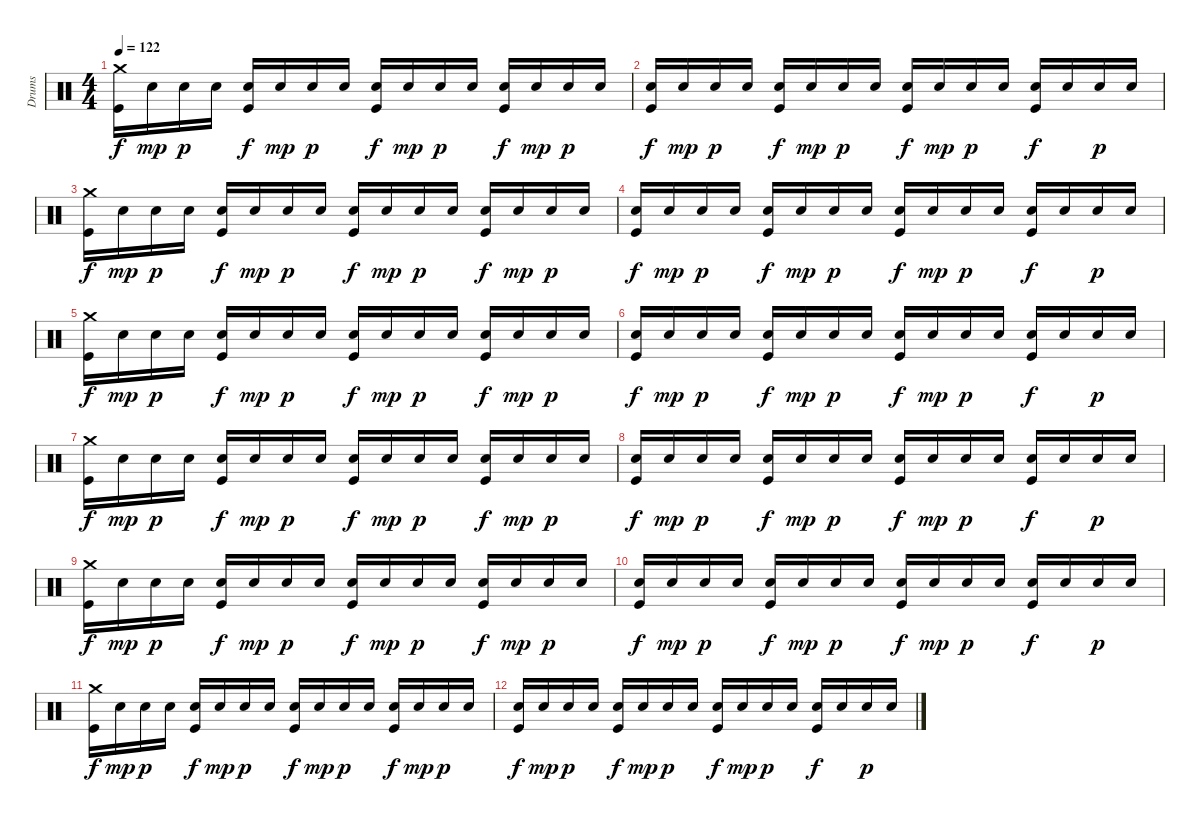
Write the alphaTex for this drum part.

\track ("Drums" "Drums") {instrument percussion}
\staff {score}
\articulation defaults
\ts (4 4)
\tempo 122
\clef neutral
\ks c
("Crash medium (hit)" "Kick (hit)").16{dy f} "Snare (hit) 2".16{dy mp} "Snare (hit) 2".16{dy p} "Snare (hit) 2".16 ("Snare (hit) 2" "Kick (hit)").16{dy f} "Snare (hit) 2".16{dy mp} "Snare (hit) 2".16{dy p} "Snare (hit) 2".16 ("Snare (hit) 2" "Kick (hit)").16{dy f} "Snare (hit) 2".16{dy mp} "Snare (hit) 2".16{dy p} "Snare (hit) 2".16 ("Snare (hit) 2" "Kick (hit)").16{dy f} "Snare (hit) 2".16{dy mp} "Snare (hit) 2".16{dy p} "Snare (hit) 2".16 |
("Snare (hit) 2" "Kick (hit)").16{dy f} "Snare (hit) 2".16{dy mp} "Snare (hit) 2".16{dy p} "Snare (hit) 2".16 ("Snare (hit) 2" "Kick (hit)").16{dy f} "Snare (hit) 2".16{dy mp} "Snare (hit) 2".16{dy p} "Snare (hit) 2".16 ("Snare (hit) 2" "Kick (hit)").16{dy f} "Snare (hit) 2".16{dy mp} "Snare (hit) 2".16{dy p} "Snare (hit) 2".16 ("Snare (hit) 2" "Kick (hit)").16{dy f} "Snare (hit) 2".16 "Snare (hit) 2".16{dy p} "Snare (hit) 2".16 |
("Crash medium (hit)" "Kick (hit)").16{dy f} "Snare (hit) 2".16{dy mp} "Snare (hit) 2".16{dy p} "Snare (hit) 2".16 ("Snare (hit) 2" "Kick (hit)").16{dy f} "Snare (hit) 2".16{dy mp} "Snare (hit) 2".16{dy p} "Snare (hit) 2".16 ("Snare (hit) 2" "Kick (hit)").16{dy f} "Snare (hit) 2".16{dy mp} "Snare (hit) 2".16{dy p} "Snare (hit) 2".16 ("Snare (hit) 2" "Kick (hit)").16{dy f} "Snare (hit) 2".16{dy mp} "Snare (hit) 2".16{dy p} "Snare (hit) 2".16 |
("Snare (hit) 2" "Kick (hit)").16{dy f} "Snare (hit) 2".16{dy mp} "Snare (hit) 2".16{dy p} "Snare (hit) 2".16 ("Snare (hit) 2" "Kick (hit)").16{dy f} "Snare (hit) 2".16{dy mp} "Snare (hit) 2".16{dy p} "Snare (hit) 2".16 ("Snare (hit) 2" "Kick (hit)").16{dy f} "Snare (hit) 2".16{dy mp} "Snare (hit) 2".16{dy p} "Snare (hit) 2".16 ("Snare (hit) 2" "Kick (hit)").16{dy f} "Snare (hit) 2".16 "Snare (hit) 2".16{dy p} "Snare (hit) 2".16 |
("Crash medium (hit)" "Kick (hit)").16{dy f} "Snare (hit) 2".16{dy mp} "Snare (hit) 2".16{dy p} "Snare (hit) 2".16 ("Snare (hit) 2" "Kick (hit)").16{dy f} "Snare (hit) 2".16{dy mp} "Snare (hit) 2".16{dy p} "Snare (hit) 2".16 ("Snare (hit) 2" "Kick (hit)").16{dy f} "Snare (hit) 2".16{dy mp} "Snare (hit) 2".16{dy p} "Snare (hit) 2".16 ("Snare (hit) 2" "Kick (hit)").16{dy f} "Snare (hit) 2".16{dy mp} "Snare (hit) 2".16{dy p} "Snare (hit) 2".16 |
("Snare (hit) 2" "Kick (hit)").16{dy f} "Snare (hit) 2".16{dy mp} "Snare (hit) 2".16{dy p} "Snare (hit) 2".16 ("Snare (hit) 2" "Kick (hit)").16{dy f} "Snare (hit) 2".16{dy mp} "Snare (hit) 2".16{dy p} "Snare (hit) 2".16 ("Snare (hit) 2" "Kick (hit)").16{dy f} "Snare (hit) 2".16{dy mp} "Snare (hit) 2".16{dy p} "Snare (hit) 2".16 ("Snare (hit) 2" "Kick (hit)").16{dy f} "Snare (hit) 2".16 "Snare (hit) 2".16{dy p} "Snare (hit) 2".16 |
("Crash medium (hit)" "Kick (hit)").16{dy f} "Snare (hit) 2".16{dy mp} "Snare (hit) 2".16{dy p} "Snare (hit) 2".16 ("Snare (hit) 2" "Kick (hit)").16{dy f} "Snare (hit) 2".16{dy mp} "Snare (hit) 2".16{dy p} "Snare (hit) 2".16 ("Snare (hit) 2" "Kick (hit)").16{dy f} "Snare (hit) 2".16{dy mp} "Snare (hit) 2".16{dy p} "Snare (hit) 2".16 ("Snare (hit) 2" "Kick (hit)").16{dy f} "Snare (hit) 2".16{dy mp} "Snare (hit) 2".16{dy p} "Snare (hit) 2".16 |
("Snare (hit) 2" "Kick (hit)").16{dy f} "Snare (hit) 2".16{dy mp} "Snare (hit) 2".16{dy p} "Snare (hit) 2".16 ("Snare (hit) 2" "Kick (hit)").16{dy f} "Snare (hit) 2".16{dy mp} "Snare (hit) 2".16{dy p} "Snare (hit) 2".16 ("Snare (hit) 2" "Kick (hit)").16{dy f} "Snare (hit) 2".16{dy mp} "Snare (hit) 2".16{dy p} "Snare (hit) 2".16 ("Snare (hit) 2" "Kick (hit)").16{dy f} "Snare (hit) 2".16 "Snare (hit) 2".16{dy p} "Snare (hit) 2".16 |
("Crash medium (hit)" "Kick (hit)").16{dy f} "Snare (hit) 2".16{dy mp} "Snare (hit) 2".16{dy p} "Snare (hit) 2".16 ("Snare (hit) 2" "Kick (hit)").16{dy f} "Snare (hit) 2".16{dy mp} "Snare (hit) 2".16{dy p} "Snare (hit) 2".16 ("Snare (hit) 2" "Kick (hit)").16{dy f} "Snare (hit) 2".16{dy mp} "Snare (hit) 2".16{dy p} "Snare (hit) 2".16 ("Snare (hit) 2" "Kick (hit)").16{dy f} "Snare (hit) 2".16{dy mp} "Snare (hit) 2".16{dy p} "Snare (hit) 2".16 |
("Snare (hit) 2" "Kick (hit)").16{dy f} "Snare (hit) 2".16{dy mp} "Snare (hit) 2".16{dy p} "Snare (hit) 2".16 ("Snare (hit) 2" "Kick (hit)").16{dy f} "Snare (hit) 2".16{dy mp} "Snare (hit) 2".16{dy p} "Snare (hit) 2".16 ("Snare (hit) 2" "Kick (hit)").16{dy f} "Snare (hit) 2".16{dy mp} "Snare (hit) 2".16{dy p} "Snare (hit) 2".16 ("Snare (hit) 2" "Kick (hit)").16{dy f} "Snare (hit) 2".16 "Snare (hit) 2".16{dy p} "Snare (hit) 2".16 |
("Crash medium (hit)" "Kick (hit)").16{dy f} "Snare (hit) 2".16{dy mp} "Snare (hit) 2".16{dy p} "Snare (hit) 2".16 ("Snare (hit) 2" "Kick (hit)").16{dy f} "Snare (hit) 2".16{dy mp} "Snare (hit) 2".16{dy p} "Snare (hit) 2".16 ("Snare (hit) 2" "Kick (hit)").16{dy f} "Snare (hit) 2".16{dy mp} "Snare (hit) 2".16{dy p} "Snare (hit) 2".16 ("Snare (hit) 2" "Kick (hit)").16{dy f} "Snare (hit) 2".16{dy mp} "Snare (hit) 2".16{dy p} "Snare (hit) 2".16 |
("Snare (hit) 2" "Kick (hit)").16{dy f} "Snare (hit) 2".16{dy mp} "Snare (hit) 2".16{dy p} "Snare (hit) 2".16 ("Snare (hit) 2" "Kick (hit)").16{dy f} "Snare (hit) 2".16{dy mp} "Snare (hit) 2".16{dy p} "Snare (hit) 2".16 ("Snare (hit) 2" "Kick (hit)").16{dy f} "Snare (hit) 2".16{dy mp} "Snare (hit) 2".16{dy p} "Snare (hit) 2".16 ("Snare (hit) 2" "Kick (hit)").16{dy f} "Snare (hit) 2".16 "Snare (hit) 2".16{dy p} "Snare (hit) 2".16
